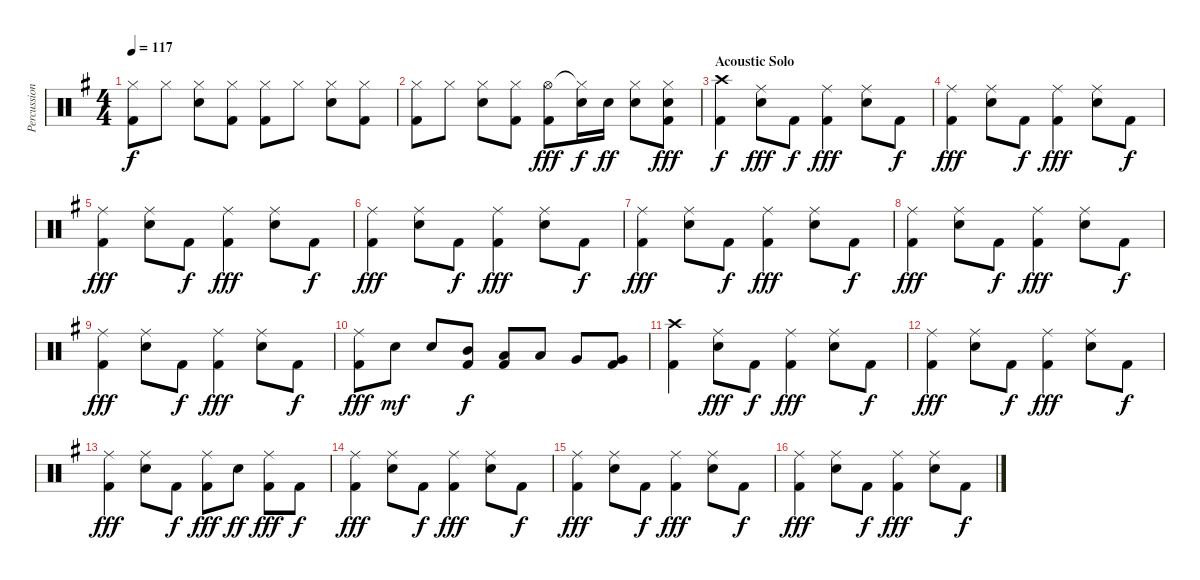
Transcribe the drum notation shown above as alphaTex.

\track ("Percussion" "Percussion") {instrument percussion}
\staff {score}
\articulation defaults
\ts (4 4)
\tempo 117
\clef neutral
\ks g
("Hi-Hat (closed)" "Kick (hit) 2").8{dy f} "Hi-Hat (closed)".8 ("Hi-Hat (closed)" "Electric Snare (hit)").8 ("Hi-Hat (closed)" "Kick (hit) 2").8 ("Hi-Hat (closed)" "Kick (hit) 2").8 "Hi-Hat (closed)".8 ("Hi-Hat (closed)" "Electric Snare (hit)").8 ("Hi-Hat (closed)" "Kick (hit) 2").8 |
("Hi-Hat (closed)" "Kick (hit) 2").8 "Hi-Hat (closed)".8 ("Hi-Hat (closed)" "Electric Snare (hit)").8 ("Hi-Hat (closed)" "Kick (hit) 2").8 ("Hi-Hat (open)" "Kick (hit) 2").8{dy fff} ("Hi-Hat (closed)"{t} "Electric Snare (hit)").16{dy f} "Electric Snare (hit)".16{dy ff} ("Hi-Hat (closed)" "Electric Snare (hit)").8 ("Hi-Hat (closed)" "Electric Snare (hit)" "Kick (hit) 2").8{dy fff} |
\section ("" "Acoustic Solo")
("Crash high (hit)" "Kick (hit) 2").4{dy f} ("Ride (middle)" "Electric Snare (hit)").8{dy fff} "Kick (hit) 2".8{dy f} ("Ride (middle)" "Kick (hit) 2").4{dy fff} ("Ride (middle)" "Electric Snare (hit)").8 "Kick (hit) 2".8{dy f} |
("Ride (middle)" "Kick (hit) 2").4{dy fff} ("Ride (middle)" "Electric Snare (hit)").8 "Kick (hit) 2".8{dy f} ("Ride (middle)" "Kick (hit) 2").4{dy fff} ("Ride (middle)" "Electric Snare (hit)").8 "Kick (hit) 2".8{dy f} |
("Ride (middle)" "Kick (hit) 2").4{dy fff} ("Ride (middle)" "Electric Snare (hit)").8 "Kick (hit) 2".8{dy f} ("Ride (middle)" "Kick (hit) 2").4{dy fff} ("Ride (middle)" "Electric Snare (hit)").8 "Kick (hit) 2".8{dy f} |
("Ride (middle)" "Kick (hit) 2").4{dy fff} ("Ride (middle)" "Electric Snare (hit)").8 "Kick (hit) 2".8{dy f} ("Ride (middle)" "Kick (hit) 2").4{dy fff} ("Ride (middle)" "Electric Snare (hit)").8 "Kick (hit) 2".8{dy f} |
("Ride (middle)" "Kick (hit) 2").4{dy fff} ("Ride (middle)" "Electric Snare (hit)").8 "Kick (hit) 2".8{dy f} ("Ride (middle)" "Kick (hit) 2").4{dy fff} ("Ride (middle)" "Electric Snare (hit)").8 "Kick (hit) 2".8{dy f} |
("Ride (middle)" "Kick (hit) 2").4{dy fff} ("Ride (middle)" "Electric Snare (hit)").8 "Kick (hit) 2".8{dy f} ("Ride (middle)" "Kick (hit) 2").4{dy fff} ("Ride (middle)" "Electric Snare (hit)").8 "Kick (hit) 2".8{dy f} |
("Ride (middle)" "Kick (hit) 2").4{dy fff} ("Ride (middle)" "Electric Snare (hit)").8 "Kick (hit) 2".8{dy f} ("Ride (middle)" "Kick (hit) 2").4{dy fff} ("Ride (middle)" "Electric Snare (hit)").8 "Kick (hit) 2".8{dy f} |
("Ride (middle)" "Kick (hit) 2").8{dy fff} "Electric Snare (hit)".8{dy mf} "Electric Snare (hit)".8 ("Mid Tom (hit)" "Kick (hit) 2").8{dy f} ("Low Tom (hit)" "Kick (hit) 2").8 "Low Floor Tom (hit)".8 "Very Low Tom (hit)".8 ("Very Low Tom (hit)" "Kick (hit) 2").8 |
("Crash high (hit)" "Kick (hit) 2").4 ("Ride (middle)" "Electric Snare (hit)").8{dy fff} "Kick (hit) 2".8{dy f} ("Ride (middle)" "Kick (hit) 2").4{dy fff} ("Ride (middle)" "Electric Snare (hit)").8 "Kick (hit) 2".8{dy f} |
("Ride (middle)" "Kick (hit) 2").4{dy fff} ("Ride (middle)" "Electric Snare (hit)").8 "Kick (hit) 2".8{dy f} ("Ride (middle)" "Kick (hit) 2").4{dy fff} ("Ride (middle)" "Electric Snare (hit)").8 "Kick (hit) 2".8{dy f} |
("Ride (middle)" "Kick (hit) 2").4{dy fff} ("Ride (middle)" "Electric Snare (hit)").8 "Kick (hit) 2".8{dy f} ("Ride (middle)" "Kick (hit) 2").8{dy fff} "Electric Snare (hit)".8{dy ff} ("Ride (middle)" "Kick (hit) 2").8{dy fff} "Kick (hit) 2".8{dy f} |
("Ride (middle)" "Kick (hit) 2").4{dy fff} ("Ride (middle)" "Electric Snare (hit)").8 "Kick (hit) 2".8{dy f} ("Ride (middle)" "Kick (hit) 2").4{dy fff} ("Ride (middle)" "Electric Snare (hit)").8 "Kick (hit) 2".8{dy f} |
("Ride (middle)" "Kick (hit) 2").4{dy fff} ("Ride (middle)" "Electric Snare (hit)").8 "Kick (hit) 2".8{dy f} ("Ride (middle)" "Kick (hit) 2").4{dy fff} ("Ride (middle)" "Electric Snare (hit)").8 "Kick (hit) 2".8{dy f} |
("Ride (middle)" "Kick (hit) 2").4{dy fff} ("Ride (middle)" "Electric Snare (hit)").8 "Kick (hit) 2".8{dy f} ("Ride (middle)" "Kick (hit) 2").4{dy fff} ("Ride (middle)" "Electric Snare (hit)").8 "Kick (hit) 2".8{dy f}
